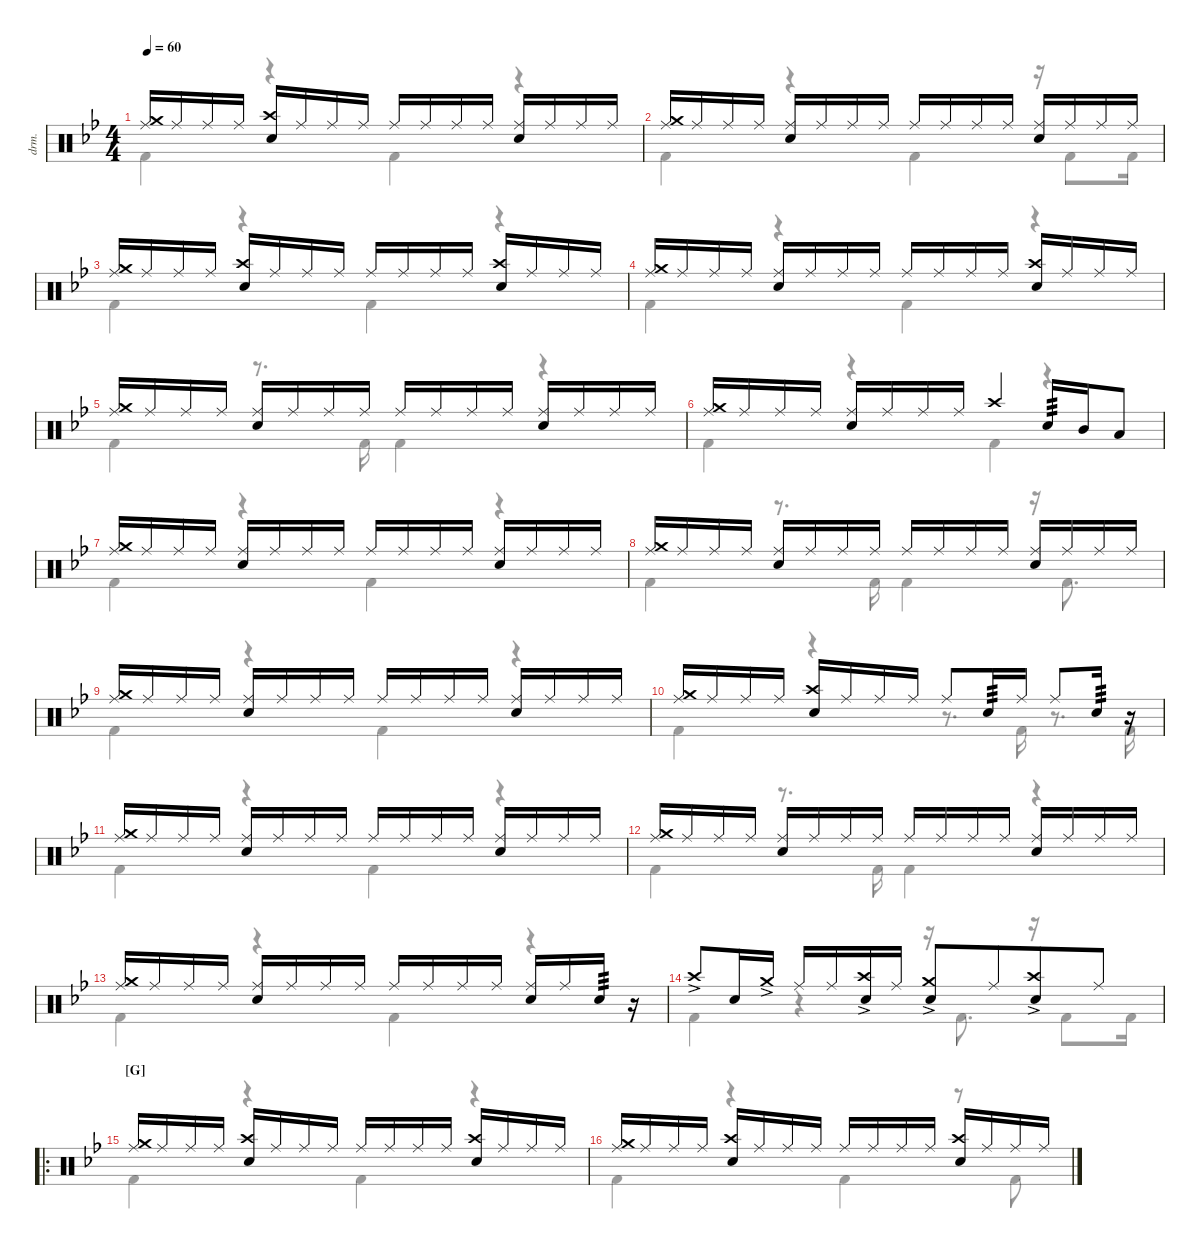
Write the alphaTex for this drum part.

\defaultSystemsLayout 4
\hideDynamics
\bracketExtendMode nobrackets
\otherSystemsTrackNameOrientation horizontal
\track ("Drumkit" "drm.") {instrument percussion}
\staff {score}
\articulation defaults
\voice
\ts (4 4)
\tempo 60
\clef neutral
\ks bb
("Crash medium (hit)"{acc forcenatural} "Ride (middle)"{acc forcenatural}).16{dy mf beam Up} "Ride (middle)"{acc forcenatural}.16{dy mp beam Up} "Ride (middle)"{acc forcenatural}.16{dy mf beam Up} "Ride (middle)"{acc forcenatural}.16{dy mp beam Up} ("Snare (hit) 2"{acc forcenatural} "Crash high (hit)"{acc forcenatural}).16{dy mf beam Up} "Ride (middle)"{acc forcenatural}.16{dy mp beam Up} "Ride (middle)"{acc forcenatural}.16{beam Up} "Ride (middle)"{acc forcenatural}.16{dy mf beam Up} "Ride (middle)"{acc forcenatural}.16{beam Up} "Ride (middle)"{acc forcenatural}.16{dy mp beam Up} "Ride (middle)"{acc forcenatural}.16{dy mf beam Up} "Ride (middle)"{acc forcenatural}.16{dy mp beam Up} ("Ride (middle)"{acc forcenatural} "Snare (hit) 2"{acc forcenatural}).16{dy mf beam Up} "Ride (middle)"{acc forcenatural}.16{dy mp beam Up} "Ride (middle)"{acc forcenatural}.16{beam Up} "Ride (middle)"{acc forcenatural}.16{dy mf beam Up} |
("Crash medium (hit)"{acc forcenatural} "Ride (middle)"{acc forcenatural}).16{beam Up} "Ride (middle)"{acc forcenatural}.16{dy mp beam Up} "Ride (middle)"{acc forcenatural}.16{dy mf beam Up} "Ride (middle)"{acc forcenatural}.16{dy mp beam Up} ("Ride (middle)"{acc forcenatural} "Snare (hit) 2"{acc forcenatural}).16{dy mf beam Up} "Ride (middle)"{acc forcenatural}.16{dy mp beam Up} "Ride (middle)"{acc forcenatural}.16{beam Up} "Ride (middle)"{acc forcenatural}.16{dy mf beam Up} "Ride (middle)"{acc forcenatural}.16{beam Up} "Ride (middle)"{acc forcenatural}.16{dy mp beam Up} "Ride (middle)"{acc forcenatural}.16{dy mf beam Up} "Ride (middle)"{acc forcenatural}.16{dy mp beam Up} ("Ride (middle)"{acc forcenatural} "Snare (hit) 2"{acc forcenatural}).16{dy mf beam Up} "Ride (middle)"{acc forcenatural}.16{dy mp beam Up} "Ride (middle)"{acc forcenatural}.16{beam Up} "Ride (middle)"{acc forcenatural}.16{dy mf beam Up} |
("Crash medium (hit)"{acc forcenatural} "Ride (middle)"{acc forcenatural}).16{beam Up} "Ride (middle)"{acc forcenatural}.16{dy mp beam Up} "Ride (middle)"{acc forcenatural}.16{dy mf beam Up} "Ride (middle)"{acc forcenatural}.16{dy mp beam Up} ("Snare (hit) 2"{acc forcenatural} "Crash high (hit)"{acc forcenatural}).16{dy mf beam Up} "Ride (middle)"{acc forcenatural}.16{dy mp beam Up} "Ride (middle)"{acc forcenatural}.16{beam Up} "Ride (middle)"{acc forcenatural}.16{dy mf beam Up} "Ride (middle)"{acc forcenatural}.16{beam Up} "Ride (middle)"{acc forcenatural}.16{dy mp beam Up} "Ride (middle)"{acc forcenatural}.16{dy mf beam Up} "Ride (middle)"{acc forcenatural}.16{dy mp beam Up} ("Snare (hit) 2"{acc forcenatural} "Crash high (hit)"{acc forcenatural}).16{dy mf beam Up} "Ride (middle)"{acc forcenatural}.16{dy mp beam Up} "Ride (middle)"{acc forcenatural}.16{beam Up} "Ride (middle)"{acc forcenatural}.16{dy mf beam Up} |
("Crash medium (hit)"{acc forcenatural} "Ride (middle)"{acc forcenatural}).16{beam Up} "Ride (middle)"{acc forcenatural}.16{dy mp beam Up} "Ride (middle)"{acc forcenatural}.16{dy mf beam Up} "Ride (middle)"{acc forcenatural}.16{dy mp beam Up} ("Ride (middle)"{acc forcenatural} "Snare (hit) 2"{acc forcenatural}).16{dy mf beam Up} "Ride (middle)"{acc forcenatural}.16{dy mp beam Up} "Ride (middle)"{acc forcenatural}.16{beam Up} "Ride (middle)"{acc forcenatural}.16{dy mf beam Up} "Ride (middle)"{acc forcenatural}.16{beam Up} "Ride (middle)"{acc forcenatural}.16{dy mp beam Up} "Ride (middle)"{acc forcenatural}.16{dy mf beam Up} "Ride (middle)"{acc forcenatural}.16{dy mp beam Up} ("Snare (hit) 2"{acc forcenatural} "Crash high (hit)"{acc forcenatural}).16{dy mf beam Up} "Ride (middle)"{acc forcenatural}.16{dy mp beam Up} "Ride (middle)"{acc forcenatural}.16{beam Up} "Ride (middle)"{acc forcenatural}.16{dy mf beam Up} |
("Ride (middle)"{acc forcenatural} "Crash medium (hit)"{acc forcenatural}).16{beam Up} "Ride (middle)"{acc forcenatural}.16{dy mp beam Up} "Ride (middle)"{acc forcenatural}.16{dy mf beam Up} "Ride (middle)"{acc forcenatural}.16{dy mp beam Up} ("Ride (middle)"{acc forcenatural} "Snare (hit) 2"{acc forcenatural}).16{dy mf beam Up} "Ride (middle)"{acc forcenatural}.16{dy mp beam Up} "Ride (middle)"{acc forcenatural}.16{beam Up} "Ride (middle)"{acc forcenatural}.16{dy mf beam Up} "Ride (middle)"{acc forcenatural}.16{beam Up} "Ride (middle)"{acc forcenatural}.16{dy mp beam Up} "Ride (middle)"{acc forcenatural}.16{dy mf beam Up} "Ride (middle)"{acc forcenatural}.16{dy mp beam Up} ("Ride (middle)"{acc forcenatural} "Snare (hit) 2"{acc forcenatural}).16{dy mf beam Up} "Ride (middle)"{acc forcenatural}.16{dy mp beam Up} "Ride (middle)"{acc forcenatural}.16{beam Up} "Ride (middle)"{acc forcenatural}.16{dy mf beam Up} |
("Crash medium (hit)"{acc forcenatural} "Ride (middle)"{acc forcenatural}).16{beam Up} "Ride (middle)"{acc forcenatural}.16{dy mp beam Up} "Ride (middle)"{acc forcenatural}.16{dy mf beam Up} "Ride (middle)"{acc forcenatural}.16{dy mp beam Up} ("Ride (middle)"{acc forcenatural} "Snare (hit) 2"{acc forcenatural}).16{dy mf beam Up} "Ride (middle)"{acc forcenatural}.16{dy mp beam Up} "Ride (middle)"{acc forcenatural}.16{beam Up} "Ride (middle)"{acc forcenatural}.16{dy mf beam Up} "Crash high (hit)"{acc forcenatural}.4{beam Up} "Snare (hit) 2"{acc forcenatural}.16{tp 3 beam Up} "Mid Tom (hit)"{acc forcenatural}.16{dy ff beam Up} "Low Tom (hit)"{acc forcenatural}.8{dy fff beam Up} |
("Crash medium (hit)"{acc forcenatural} "Ride (middle)"{acc forcenatural}).16{dy mf beam Up} "Ride (middle)"{acc forcenatural}.16{dy mp beam Up} "Ride (middle)"{acc forcenatural}.16{dy mf beam Up} "Ride (middle)"{acc forcenatural}.16{dy mp beam Up} ("Ride (middle)"{acc forcenatural} "Snare (hit) 2"{acc forcenatural}).16{dy mf beam Up} "Ride (middle)"{acc forcenatural}.16{dy mp beam Up} "Ride (middle)"{acc forcenatural}.16{beam Up} "Ride (middle)"{acc forcenatural}.16{dy mf beam Up} "Ride (middle)"{acc forcenatural}.16{beam Up} "Ride (middle)"{acc forcenatural}.16{dy mp beam Up} "Ride (middle)"{acc forcenatural}.16{dy mf beam Up} "Ride (middle)"{acc forcenatural}.16{dy mp beam Up} ("Ride (middle)"{acc forcenatural} "Snare (hit) 2"{acc forcenatural}).16{dy mf beam Up} "Ride (middle)"{acc forcenatural}.16{dy mp beam Up} "Ride (middle)"{acc forcenatural}.16{beam Up} "Ride (middle)"{acc forcenatural}.16{dy mf beam Up} |
("Crash medium (hit)"{acc forcenatural} "Ride (middle)"{acc forcenatural}).16{beam Up} "Ride (middle)"{acc forcenatural}.16{dy mp beam Up} "Ride (middle)"{acc forcenatural}.16{dy mf beam Up} "Ride (middle)"{acc forcenatural}.16{dy mp beam Up} ("Ride (middle)"{acc forcenatural} "Snare (hit) 2"{acc forcenatural}).16{dy mf beam Up} "Ride (middle)"{acc forcenatural}.16{dy mp beam Up} "Ride (middle)"{acc forcenatural}.16{beam Up} "Ride (middle)"{acc forcenatural}.16{dy mf beam Up} "Ride (middle)"{acc forcenatural}.16{beam Up} "Ride (middle)"{acc forcenatural}.16{dy mp beam Up} "Ride (middle)"{acc forcenatural}.16{dy mf beam Up} "Ride (middle)"{acc forcenatural}.16{dy mp beam Up} ("Ride (middle)"{acc forcenatural} "Snare (hit) 2"{acc forcenatural}).16{dy mf beam Up} "Ride (middle)"{acc forcenatural}.16{dy mp beam Up} "Ride (middle)"{acc forcenatural}.16{beam Up} "Ride (middle)"{acc forcenatural}.16{dy mf beam Up} |
("Crash medium (hit)"{acc forcenatural} "Ride (middle)"{acc forcenatural}).16{beam Up} "Ride (middle)"{acc forcenatural}.16{dy mp beam Up} "Ride (middle)"{acc forcenatural}.16{dy mf beam Up} "Ride (middle)"{acc forcenatural}.16{dy mp beam Up} ("Ride (middle)"{acc forcenatural} "Snare (hit) 2"{acc forcenatural}).16{dy mf beam Up} "Ride (middle)"{acc forcenatural}.16{dy mp beam Up} "Ride (middle)"{acc forcenatural}.16{beam Up} "Ride (middle)"{acc forcenatural}.16{dy mf beam Up} "Ride (middle)"{acc forcenatural}.16{beam Up} "Ride (middle)"{acc forcenatural}.16{dy mp beam Up} "Ride (middle)"{acc forcenatural}.16{dy mf beam Up} "Ride (middle)"{acc forcenatural}.16{dy mp beam Up} ("Ride (middle)"{acc forcenatural} "Snare (hit) 2"{acc forcenatural}).16{dy mf beam Up} "Ride (middle)"{acc forcenatural}.16{dy mp beam Up} "Ride (middle)"{acc forcenatural}.16{beam Up} "Ride (middle)"{acc forcenatural}.16{dy mf beam Up} |
("Crash medium (hit)"{acc forcenatural} "Ride (middle)"{acc forcenatural}).16{beam Up} "Ride (middle)"{acc forcenatural}.16{dy mp beam Up} "Ride (middle)"{acc forcenatural}.16{dy mf beam Up} "Ride (middle)"{acc forcenatural}.16{dy mp beam Up} ("Snare (hit) 2"{acc forcenatural} "Crash high (hit)"{acc forcenatural}).16{dy mf beam Up} "Ride (middle)"{acc forcenatural}.16{dy mp beam Up} "Ride (middle)"{acc forcenatural}.16{beam Up} "Ride (middle)"{acc forcenatural}.16{dy mf beam Up} "Ride (middle)"{acc forcenatural}.8{beam Up} "Snare (hit) 2"{acc forcenatural}.16{tp 3 beam Up} "Ride (middle)"{acc forcenatural}.16{beam Up} "Ride (middle)"{acc forcenatural}.8{beam Up} "Snare (hit) 2"{acc forcenatural}.16{tp 3 beam Up} r.16{beam Up} |
("Crash medium (hit)"{acc forcenatural} "Ride (middle)"{acc forcenatural}).16{beam Up} "Ride (middle)"{acc forcenatural}.16{dy mp beam Up} "Ride (middle)"{acc forcenatural}.16{dy mf beam Up} "Ride (middle)"{acc forcenatural}.16{dy mp beam Up} ("Ride (middle)"{acc forcenatural} "Snare (hit) 2"{acc forcenatural}).16{dy mf beam Up} "Ride (middle)"{acc forcenatural}.16{dy mp beam Up} "Ride (middle)"{acc forcenatural}.16{beam Up} "Ride (middle)"{acc forcenatural}.16{dy mf beam Up} "Ride (middle)"{acc forcenatural}.16{beam Up} "Ride (middle)"{acc forcenatural}.16{dy mp beam Up} "Ride (middle)"{acc forcenatural}.16{dy mf beam Up} "Ride (middle)"{acc forcenatural}.16{dy mp beam Up} ("Ride (middle)"{acc forcenatural} "Snare (hit) 2"{acc forcenatural}).16{dy mf beam Up} "Ride (middle)"{acc forcenatural}.16{dy mp beam Up} "Ride (middle)"{acc forcenatural}.16{beam Up} "Ride (middle)"{acc forcenatural}.16{dy mf beam Up} |
("Crash medium (hit)"{acc forcenatural} "Ride (middle)"{acc forcenatural}).16{beam Up} "Ride (middle)"{acc forcenatural}.16{dy mp beam Up} "Ride (middle)"{acc forcenatural}.16{dy mf beam Up} "Ride (middle)"{acc forcenatural}.16{dy mp beam Up} ("Ride (middle)"{acc forcenatural} "Snare (hit) 2"{acc forcenatural}).16{dy mf beam Up} "Ride (middle)"{acc forcenatural}.16{dy mp beam Up} "Ride (middle)"{acc forcenatural}.16{beam Up} "Ride (middle)"{acc forcenatural}.16{dy mf beam Up} "Ride (middle)"{acc forcenatural}.16{beam Up} "Ride (middle)"{acc forcenatural}.16{dy mp beam Up} "Ride (middle)"{acc forcenatural}.16{dy mf beam Up} "Ride (middle)"{acc forcenatural}.16{dy mp beam Up} ("Ride (middle)"{acc forcenatural} "Snare (hit) 2"{acc forcenatural}).16{dy mf beam Up} "Ride (middle)"{acc forcenatural}.16{dy mp beam Up} "Ride (middle)"{acc forcenatural}.16{beam Up} "Ride (middle)"{acc forcenatural}.16{dy mf beam Up} |
("Crash medium (hit)"{acc forcenatural} "Ride (middle)"{acc forcenatural}).16{beam Up} "Ride (middle)"{acc forcenatural}.16{dy mp beam Up} "Ride (middle)"{acc forcenatural}.16{dy mf beam Up} "Ride (middle)"{acc forcenatural}.16{dy mp beam Up} ("Ride (middle)"{acc forcenatural} "Snare (hit) 2"{acc forcenatural}).16{dy mf beam Up} "Ride (middle)"{acc forcenatural}.16{dy mp beam Up} "Ride (middle)"{acc forcenatural}.16{beam Up} "Ride (middle)"{acc forcenatural}.16{dy mf beam Up} "Ride (middle)"{acc forcenatural}.16{beam Up} "Ride (middle)"{acc forcenatural}.16{dy mp beam Up} "Ride (middle)"{acc forcenatural}.16{dy mf beam Up} "Ride (middle)"{acc forcenatural}.16{dy mp beam Up} ("Ride (middle)"{acc forcenatural} "Snare (hit) 2"{acc forcenatural}).16{dy mf beam Up} "Ride (middle)"{acc forcenatural}.16{dy mp beam Up} "Snare (hit) 2"{acc forcenatural}.16{tp 3 beam Up} r.16{beam Up} |
"Crash high (hit)"{ac acc forcenatural}.8{beam Up} "Snare (hit) 2"{acc forcenatural}.16{beam Up} "Crash medium (hit)"{ac acc forcenatural}.16{beam Up} "Ride (middle)"{acc forcenatural}.16{beam Up} "Ride (middle)"{acc forcenatural}.16{beam Up} ("Snare (hit) 2"{acc forcenatural} "Crash high (hit)"{ac acc forcenatural}).16{beam Up} "Ride (middle)"{acc forcenatural}.16{beam Up} ("Crash medium (hit)"{ac acc forcenatural} "Snare (hit) 2"{acc forcenatural}).8{beam Up} "Ride (middle)"{acc forcenatural}.8{beam Up beam merge} ("Snare (hit) 2"{acc forcenatural} "Crash high (hit)"{ac acc forcenatural}).8{beam Up} "Ride (middle)"{acc forcenatural}.8{beam Up} |
\ro
\section ("G" "")
("Crash medium (hit)"{acc forcenatural} "Ride (middle)"{acc forcenatural}).16{dy mf beam Up} "Ride (middle)"{acc forcenatural}.16{dy mp beam Up} "Ride (middle)"{acc forcenatural}.16{dy mf beam Up} "Ride (middle)"{acc forcenatural}.16{dy mp beam Up} ("Snare (hit) 2"{acc forcenatural} "Crash high (hit)"{acc forcenatural}).16{dy mf beam Up} "Ride (middle)"{acc forcenatural}.16{dy mp beam Up} "Ride (middle)"{acc forcenatural}.16{beam Up} "Ride (middle)"{acc forcenatural}.16{dy mf beam Up} "Ride (middle)"{acc forcenatural}.16{beam Up} "Ride (middle)"{acc forcenatural}.16{dy mp beam Up} "Ride (middle)"{acc forcenatural}.16{dy mf beam Up} "Ride (middle)"{acc forcenatural}.16{dy mp beam Up} ("Snare (hit) 2"{acc forcenatural} "Crash high (hit)"{acc forcenatural}).16{dy mf beam Up} "Ride (middle)"{acc forcenatural}.16{dy mp beam Up} "Ride (middle)"{acc forcenatural}.16{beam Up} "Ride (middle)"{acc forcenatural}.16{dy mf beam Up} |
("Crash medium (hit)"{acc forcenatural} "Ride (middle)"{acc forcenatural}).16{beam Up} "Ride (middle)"{acc forcenatural}.16{dy mp beam Up} "Ride (middle)"{acc forcenatural}.16{dy mf beam Up} "Ride (middle)"{acc forcenatural}.16{dy mp beam Up} ("Snare (hit) 2"{acc forcenatural} "Crash high (hit)"{acc forcenatural}).16{dy mf beam Up} "Ride (middle)"{acc forcenatural}.16{dy mp beam Up} "Ride (middle)"{acc forcenatural}.16{beam Up} "Ride (middle)"{acc forcenatural}.16{dy mf beam Up} "Ride (middle)"{acc forcenatural}.16{beam Up} "Ride (middle)"{acc forcenatural}.16{dy mp beam Up} "Ride (middle)"{acc forcenatural}.16{dy mf beam Up} "Ride (middle)"{acc forcenatural}.16{dy mp beam Up} ("Snare (hit) 2"{acc forcenatural} "Crash high (hit)"{acc forcenatural}).16{dy mf beam Up} "Ride (middle)"{acc forcenatural}.16{dy mp beam Up} "Ride (middle)"{acc forcenatural}.16{beam Up} "Ride (middle)"{acc forcenatural}.16{dy mf beam Up}
\voice
\clef neutral
\ottava regular
\simile none
\ks bb "Kick (hit) 2"{acc forcenatural}.4{dy mf beam Down}
r.4{beam Down} "Kick (hit) 2"{acc forcenatural}.4{beam Down} r.4{beam Down} |
"Kick (hit) 2"{acc forcenatural}.4{beam Down} r.4{beam Down} "Kick (hit) 2"{acc forcenatural}.4{beam Down} r.16{beam Down} "Kick (hit) 2"{acc forcenatural}.8{beam Down} "Kick (hit) 2"{acc forcenatural}.16{beam Down} |
"Kick (hit) 2"{acc forcenatural}.4{beam Down} r.4{beam Down} "Kick (hit) 2"{acc forcenatural}.4{beam Down} r.4{beam Down} |
"Kick (hit) 2"{acc forcenatural}.4{beam Down} r.4{beam Down} "Kick (hit) 2"{acc forcenatural}.4{beam Down} r.4{beam Down} |
"Kick (hit) 2"{acc forcenatural}.4{beam Down} r.8{d beam Down} "Kick (hit) 2"{acc forcenatural}.16{beam Down} "Kick (hit) 2"{acc forcenatural}.4{beam Down} r.4{beam Down} |
"Kick (hit) 2"{acc forcenatural}.4{beam Down} r.4{beam Down} "Kick (hit) 2"{acc forcenatural}.4{beam Down} r.4{beam Down} |
"Kick (hit) 2"{acc forcenatural}.4{beam Down} r.4{beam Down} "Kick (hit) 2"{acc forcenatural}.4{beam Down} r.4{beam Down} |
"Kick (hit) 2"{acc forcenatural}.4{beam Down} r.8{d beam Down} "Kick (hit) 2"{acc forcenatural}.16{beam Down} "Kick (hit) 2"{acc forcenatural}.4{beam Down} r.16{beam Down} "Kick (hit) 2"{acc forcenatural}.8{d beam Down} |
"Kick (hit) 2"{acc forcenatural}.4{beam Down} r.4{beam Down} "Kick (hit) 2"{acc forcenatural}.4{beam Down} r.4{beam Down} |
"Kick (hit) 2"{acc forcenatural}.4{beam Down} r.4{beam Down} r.8{d beam Down} "Kick (hit) 2"{acc forcenatural}.16{beam Down} r.8{d beam Down} "Kick (hit) 2"{acc forcenatural}.16{beam Down} |
"Kick (hit) 2"{acc forcenatural}.4{beam Down} r.4{beam Down} "Kick (hit) 2"{acc forcenatural}.4{beam Down} r.4{beam Down} |
"Kick (hit) 2"{acc forcenatural}.4{beam Down} r.8{d beam Down} "Kick (hit) 2"{acc forcenatural}.16{beam Down} "Kick (hit) 2"{acc forcenatural}.4{beam Down} r.4{beam Down} |
"Kick (hit) 2"{acc forcenatural}.4{beam Down} r.4{beam Down} "Kick (hit) 2"{acc forcenatural}.4{beam Down} r.4{beam Down} |
"Kick (hit) 2"{acc forcenatural}.4{beam Down} r.4{beam Down} r.16{beam Down} "Kick (hit) 2"{acc forcenatural}.8{d beam Down} r.16{beam Down} "Kick (hit) 2"{acc forcenatural}.8{beam Down} "Kick (hit) 2"{acc forcenatural}.16{beam Down} |
"Kick (hit) 2"{acc forcenatural}.4{beam Down} r.4{beam Down} "Kick (hit) 2"{acc forcenatural}.4{beam Down} r.4{beam Down} |
"Kick (hit) 2"{acc forcenatural}.4{beam Down} r.4{beam Down} "Kick (hit) 2"{acc forcenatural}.4{beam Down} r.8{beam Down} "Kick (hit) 2"{acc forcenatural}.8{beam Down}
